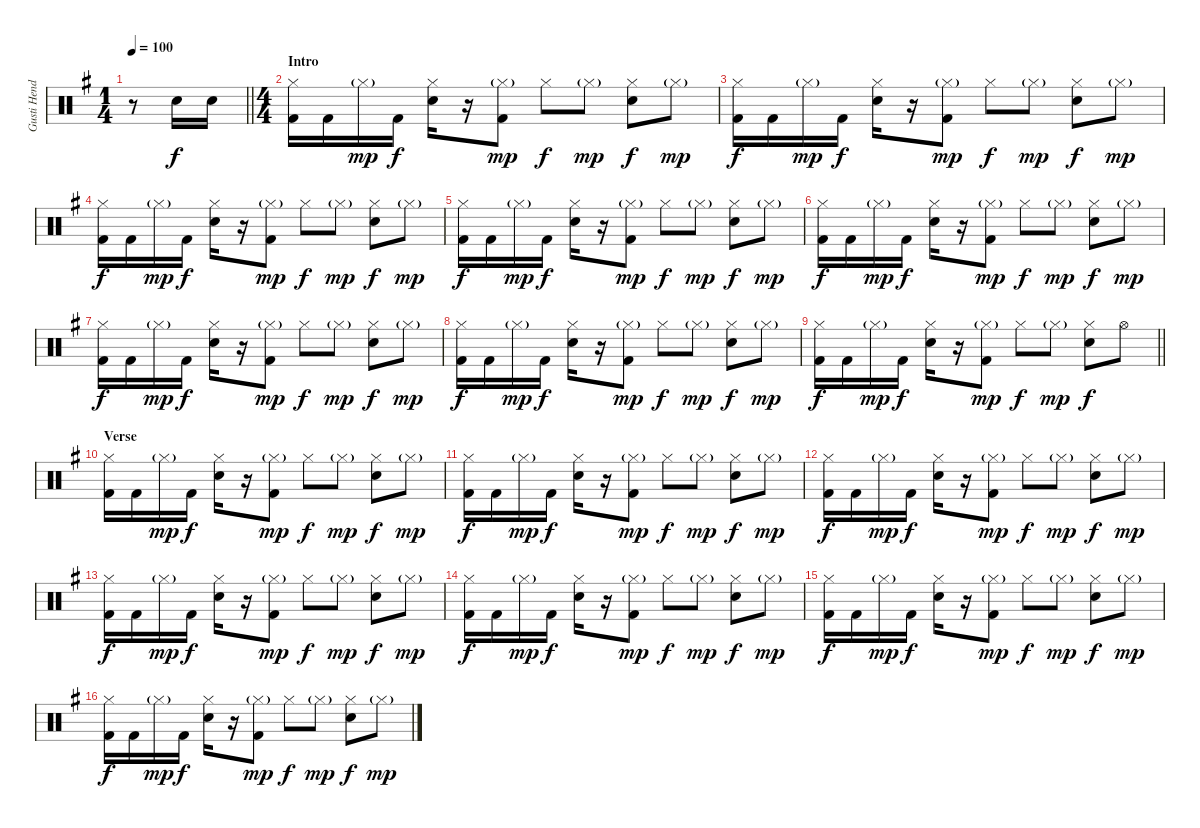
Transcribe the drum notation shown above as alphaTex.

\track ("Gusti Hendy" "Gusti Hend") {instrument percussion}
\staff {score}
\articulation defaults
\ts (1 4)
\tempo 100
\clef neutral
\barLineRight lightlight
\ks g
r.8{dy f} "Electric Snare (hit)".16 "Electric Snare (hit)".16 |
\ts (4 4)
\section ("" "Intro")
("Hi-Hat (closed)" "Kick (hit) 2").16 "Kick (hit) 2".16 "Hi-Hat (closed)"{g}.16{dy mp} "Kick (hit) 2".16{dy f} ("Hi-Hat (closed)" "Electric Snare (hit)").16 r.16 ("Hi-Hat (closed)"{g} "Kick (hit) 2").8{dy mp} "Hi-Hat (closed)".8{dy f} "Hi-Hat (closed)"{g}.8{dy mp} ("Hi-Hat (closed)" "Electric Snare (hit)").8{dy f} "Hi-Hat (closed)"{g}.8{dy mp} |
("Hi-Hat (closed)" "Kick (hit) 2").16{dy f} "Kick (hit) 2".16 "Hi-Hat (closed)"{g}.16{dy mp} "Kick (hit) 2".16{dy f} ("Hi-Hat (closed)" "Electric Snare (hit)").16 r.16 ("Hi-Hat (closed)"{g} "Kick (hit) 2").8{dy mp} "Hi-Hat (closed)".8{dy f} "Hi-Hat (closed)"{g}.8{dy mp} ("Hi-Hat (closed)" "Electric Snare (hit)").8{dy f} "Hi-Hat (closed)"{g}.8{dy mp} |
("Hi-Hat (closed)" "Kick (hit) 2").16{dy f} "Kick (hit) 2".16 "Hi-Hat (closed)"{g}.16{dy mp} "Kick (hit) 2".16{dy f} ("Hi-Hat (closed)" "Electric Snare (hit)").16 r.16 ("Hi-Hat (closed)"{g} "Kick (hit) 2").8{dy mp} "Hi-Hat (closed)".8{dy f} "Hi-Hat (closed)"{g}.8{dy mp} ("Hi-Hat (closed)" "Electric Snare (hit)").8{dy f} "Hi-Hat (closed)"{g}.8{dy mp} |
("Hi-Hat (closed)" "Kick (hit) 2").16{dy f} "Kick (hit) 2".16 "Hi-Hat (closed)"{g}.16{dy mp} "Kick (hit) 2".16{dy f} ("Hi-Hat (closed)" "Electric Snare (hit)").16 r.16 ("Hi-Hat (closed)"{g} "Kick (hit) 2").8{dy mp} "Hi-Hat (closed)".8{dy f} "Hi-Hat (closed)"{g}.8{dy mp} ("Hi-Hat (closed)" "Electric Snare (hit)").8{dy f} "Hi-Hat (closed)"{g}.8{dy mp} |
("Hi-Hat (closed)" "Kick (hit) 2").16{dy f} "Kick (hit) 2".16 "Hi-Hat (closed)"{g}.16{dy mp} "Kick (hit) 2".16{dy f} ("Hi-Hat (closed)" "Electric Snare (hit)").16 r.16 ("Hi-Hat (closed)"{g} "Kick (hit) 2").8{dy mp} "Hi-Hat (closed)".8{dy f} "Hi-Hat (closed)"{g}.8{dy mp} ("Hi-Hat (closed)" "Electric Snare (hit)").8{dy f} "Hi-Hat (closed)"{g}.8{dy mp} |
("Hi-Hat (closed)" "Kick (hit) 2").16{dy f} "Kick (hit) 2".16 "Hi-Hat (closed)"{g}.16{dy mp} "Kick (hit) 2".16{dy f} ("Hi-Hat (closed)" "Electric Snare (hit)").16 r.16 ("Hi-Hat (closed)"{g} "Kick (hit) 2").8{dy mp} "Hi-Hat (closed)".8{dy f} "Hi-Hat (closed)"{g}.8{dy mp} ("Hi-Hat (closed)" "Electric Snare (hit)").8{dy f} "Hi-Hat (closed)"{g}.8{dy mp} |
("Hi-Hat (closed)" "Kick (hit) 2").16{dy f} "Kick (hit) 2".16 "Hi-Hat (closed)"{g}.16{dy mp} "Kick (hit) 2".16{dy f} ("Hi-Hat (closed)" "Electric Snare (hit)").16 r.16 ("Hi-Hat (closed)"{g} "Kick (hit) 2").8{dy mp} "Hi-Hat (closed)".8{dy f} "Hi-Hat (closed)"{g}.8{dy mp} ("Hi-Hat (closed)" "Electric Snare (hit)").8{dy f} "Hi-Hat (closed)"{g}.8{dy mp} |
\barLineRight lightlight
("Hi-Hat (closed)" "Kick (hit) 2").16{dy f} "Kick (hit) 2".16 "Hi-Hat (closed)"{g}.16{dy mp} "Kick (hit) 2".16{dy f} ("Hi-Hat (closed)" "Electric Snare (hit)").16 r.16 ("Hi-Hat (closed)"{g} "Kick (hit) 2").8{dy mp} "Hi-Hat (closed)".8{dy f} "Hi-Hat (closed)"{g}.8{dy mp} ("Hi-Hat (closed)" "Electric Snare (hit)").8{dy f} "Hi-Hat (open)".8 |
\section ("" "Verse")
("Hi-Hat (closed)" "Kick (hit) 2").16 "Kick (hit) 2".16 "Hi-Hat (closed)"{g}.16{dy mp} "Kick (hit) 2".16{dy f} ("Hi-Hat (closed)" "Electric Snare (hit)").16 r.16 ("Hi-Hat (closed)"{g} "Kick (hit) 2").8{dy mp} "Hi-Hat (closed)".8{dy f} "Hi-Hat (closed)"{g}.8{dy mp} ("Hi-Hat (closed)" "Electric Snare (hit)").8{dy f} "Hi-Hat (closed)"{g}.8{dy mp} |
("Hi-Hat (closed)" "Kick (hit) 2").16{dy f} "Kick (hit) 2".16 "Hi-Hat (closed)"{g}.16{dy mp} "Kick (hit) 2".16{dy f} ("Hi-Hat (closed)" "Electric Snare (hit)").16 r.16 ("Hi-Hat (closed)"{g} "Kick (hit) 2").8{dy mp} "Hi-Hat (closed)".8{dy f} "Hi-Hat (closed)"{g}.8{dy mp} ("Hi-Hat (closed)" "Electric Snare (hit)").8{dy f} "Hi-Hat (closed)"{g}.8{dy mp} |
("Hi-Hat (closed)" "Kick (hit) 2").16{dy f} "Kick (hit) 2".16 "Hi-Hat (closed)"{g}.16{dy mp} "Kick (hit) 2".16{dy f} ("Hi-Hat (closed)" "Electric Snare (hit)").16 r.16 ("Hi-Hat (closed)"{g} "Kick (hit) 2").8{dy mp} "Hi-Hat (closed)".8{dy f} "Hi-Hat (closed)"{g}.8{dy mp} ("Hi-Hat (closed)" "Electric Snare (hit)").8{dy f} "Hi-Hat (closed)"{g}.8{dy mp} |
("Hi-Hat (closed)" "Kick (hit) 2").16{dy f} "Kick (hit) 2".16 "Hi-Hat (closed)"{g}.16{dy mp} "Kick (hit) 2".16{dy f} ("Hi-Hat (closed)" "Electric Snare (hit)").16 r.16 ("Hi-Hat (closed)"{g} "Kick (hit) 2").8{dy mp} "Hi-Hat (closed)".8{dy f} "Hi-Hat (closed)"{g}.8{dy mp} ("Hi-Hat (closed)" "Electric Snare (hit)").8{dy f} "Hi-Hat (closed)"{g}.8{dy mp} |
("Hi-Hat (closed)" "Kick (hit) 2").16{dy f} "Kick (hit) 2".16 "Hi-Hat (closed)"{g}.16{dy mp} "Kick (hit) 2".16{dy f} ("Hi-Hat (closed)" "Electric Snare (hit)").16 r.16 ("Hi-Hat (closed)"{g} "Kick (hit) 2").8{dy mp} "Hi-Hat (closed)".8{dy f} "Hi-Hat (closed)"{g}.8{dy mp} ("Hi-Hat (closed)" "Electric Snare (hit)").8{dy f} "Hi-Hat (closed)"{g}.8{dy mp} |
("Hi-Hat (closed)" "Kick (hit) 2").16{dy f} "Kick (hit) 2".16 "Hi-Hat (closed)"{g}.16{dy mp} "Kick (hit) 2".16{dy f} ("Hi-Hat (closed)" "Electric Snare (hit)").16 r.16 ("Hi-Hat (closed)"{g} "Kick (hit) 2").8{dy mp} "Hi-Hat (closed)".8{dy f} "Hi-Hat (closed)"{g}.8{dy mp} ("Hi-Hat (closed)" "Electric Snare (hit)").8{dy f} "Hi-Hat (closed)"{g}.8{dy mp} |
("Hi-Hat (closed)" "Kick (hit) 2").16{dy f} "Kick (hit) 2".16 "Hi-Hat (closed)"{g}.16{dy mp} "Kick (hit) 2".16{dy f} ("Hi-Hat (closed)" "Electric Snare (hit)").16 r.16 ("Hi-Hat (closed)"{g} "Kick (hit) 2").8{dy mp} "Hi-Hat (closed)".8{dy f} "Hi-Hat (closed)"{g}.8{dy mp} ("Hi-Hat (closed)" "Electric Snare (hit)").8{dy f} "Hi-Hat (closed)"{g}.8{dy mp}
